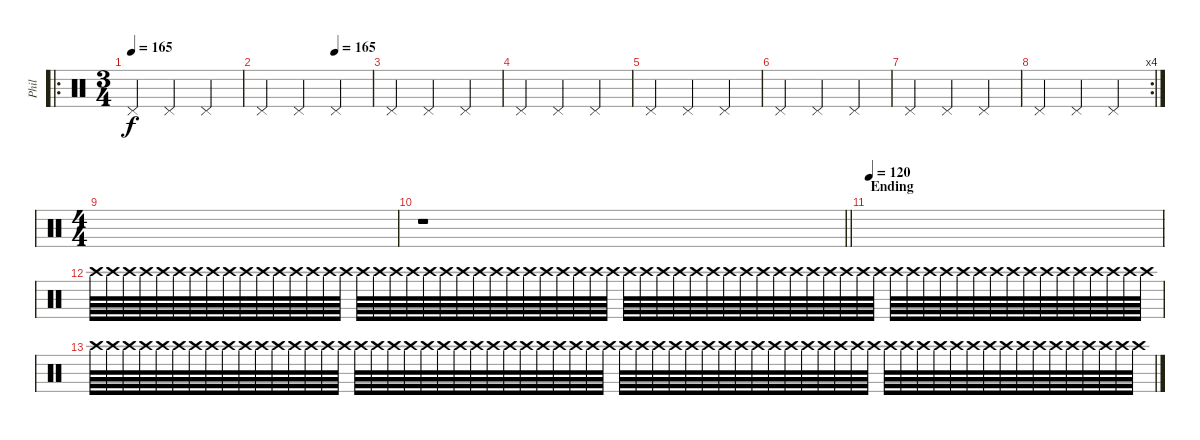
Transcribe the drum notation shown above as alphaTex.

\track ("Phil" "Phil") {instrument percussion}
\staff {score}
\articulation defaults
\ro
\ts (3 4)
\tempo 165
\clef neutral
\ks c "Pedal Hi-Hat (hit)".4{dy f} "Pedal Hi-Hat (hit)".4 "Pedal Hi-Hat (hit)".4
|
\tempo (165 0.6666666666666666)
"Pedal Hi-Hat (hit)".4 "Pedal Hi-Hat (hit)".4 "Pedal Hi-Hat (hit)".4 |
"Pedal Hi-Hat (hit)".4 "Pedal Hi-Hat (hit)".4 "Pedal Hi-Hat (hit)".4 |
"Pedal Hi-Hat (hit)".4 "Pedal Hi-Hat (hit)".4 "Pedal Hi-Hat (hit)".4 |
"Pedal Hi-Hat (hit)".4 "Pedal Hi-Hat (hit)".4 "Pedal Hi-Hat (hit)".4 |
"Pedal Hi-Hat (hit)".4 "Pedal Hi-Hat (hit)".4 "Pedal Hi-Hat (hit)".4 |
"Pedal Hi-Hat (hit)".4 "Pedal Hi-Hat (hit)".4 "Pedal Hi-Hat (hit)".4 |
\rc 4 "Pedal Hi-Hat (hit)".4 "Pedal Hi-Hat (hit)".4 "Pedal Hi-Hat (hit)".4
|
\ts (4 4)
|
\barLineRight lightlight
r.1{volume 0} |
\section ("" "Ending")
\tempo 120
|
"Crash high (hit)".64{volume 15} "Crash high (hit)".64 "Crash high (hit)".64 "Crash high (hit)".64 "Crash high (hit)".64 "Crash high (hit)".64 "Crash high (hit)".64 "Crash high (hit)".64 "Crash high (hit)".64 "Crash high (hit)".64 "Crash high (hit)".64 "Crash high (hit)".64 "Crash high (hit)".64 "Crash high (hit)".64 "Crash high (hit)".64 "Crash high (hit)".64 "Crash high (hit)".64 "Crash high (hit)".64 "Crash high (hit)".64 "Crash high (hit)".64 "Crash high (hit)".64 "Crash high (hit)".64 "Crash high (hit)".64 "Crash high (hit)".64 "Crash high (hit)".64 "Crash high (hit)".64 "Crash high (hit)".64 "Crash high (hit)".64 "Crash high (hit)".64 "Crash high (hit)".64 "Crash high (hit)".64 "Crash high (hit)".64 "Crash high (hit)".64 "Crash high (hit)".64 "Crash high (hit)".64 "Crash high (hit)".64 "Crash high (hit)".64 "Crash high (hit)".64 "Crash high (hit)".64 "Crash high (hit)".64 "Crash high (hit)".64 "Crash high (hit)".64 "Crash high (hit)".64 "Crash high (hit)".64 "Crash high (hit)".64 "Crash high (hit)".64 "Crash high (hit)".64 "Crash high (hit)".64 "Crash high (hit)".64 "Crash high (hit)".64 "Crash high (hit)".64 "Crash high (hit)".64 "Crash high (hit)".64 "Crash high (hit)".64 "Crash high (hit)".64 "Crash high (hit)".64 "Crash high (hit)".64 "Crash high (hit)".64 "Crash high (hit)".64 "Crash high (hit)".64 "Crash high (hit)".64 "Crash high (hit)".64 "Crash high (hit)".64 "Crash high (hit)".64 |
"Crash high (hit)".64{volume 15} "Crash high (hit)".64 "Crash high (hit)".64 "Crash high (hit)".64 "Crash high (hit)".64 "Crash high (hit)".64 "Crash high (hit)".64 "Crash high (hit)".64 "Crash high (hit)".64 "Crash high (hit)".64 "Crash high (hit)".64 "Crash high (hit)".64 "Crash high (hit)".64 "Crash high (hit)".64 "Crash high (hit)".64 "Crash high (hit)".64 "Crash high (hit)".64 "Crash high (hit)".64 "Crash high (hit)".64 "Crash high (hit)".64 "Crash high (hit)".64 "Crash high (hit)".64 "Crash high (hit)".64 "Crash high (hit)".64 "Crash high (hit)".64 "Crash high (hit)".64 "Crash high (hit)".64 "Crash high (hit)".64 "Crash high (hit)".64 "Crash high (hit)".64 "Crash high (hit)".64 "Crash high (hit)".64 "Crash high (hit)".64 "Crash high (hit)".64 "Crash high (hit)".64 "Crash high (hit)".64 "Crash high (hit)".64 "Crash high (hit)".64 "Crash high (hit)".64 "Crash high (hit)".64 "Crash high (hit)".64 "Crash high (hit)".64 "Crash high (hit)".64 "Crash high (hit)".64 "Crash high (hit)".64 "Crash high (hit)".64 "Crash high (hit)".64 "Crash high (hit)".64 "Crash high (hit)".64 "Crash high (hit)".64 "Crash high (hit)".64 "Crash high (hit)".64 "Crash high (hit)".64 "Crash high (hit)".64 "Crash high (hit)".64 "Crash high (hit)".64 "Crash high (hit)".64 "Crash high (hit)".64 "Crash high (hit)".64 "Crash high (hit)".64 "Crash high (hit)".64 "Crash high (hit)".64 "Crash high (hit)".64 "Crash high (hit)".64{volume 0}
